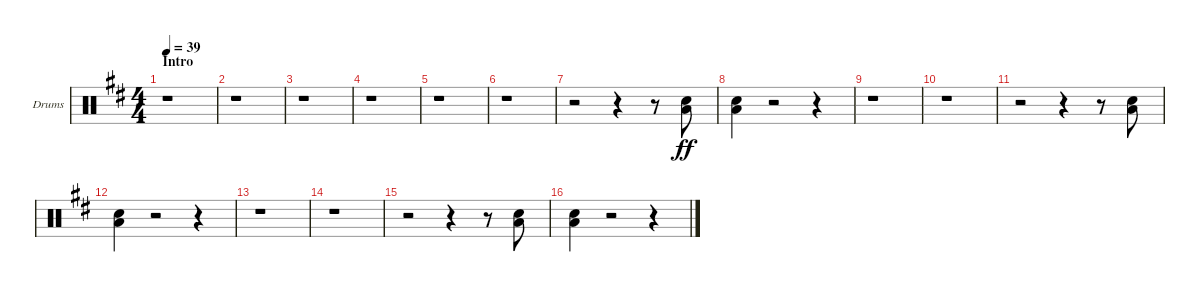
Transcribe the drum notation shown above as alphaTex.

\bracketExtendMode groupsimilarinstruments
\firstSystemTrackNameOrientation horizontal
\otherSystemsTrackNameOrientation horizontal
\track ("Drumkit" "Drums") {instrument percussion}
\staff {score}
\articulation defaults
\ts (4 4)
\section ("" "Intro")
\tempo 39
\clef neutral
\ks d
r.1{dy ff} |
r.1 |
r.1 |
r.1 |
r.1 |
r.1 |
r.2 r.4 r.8 ("Low Tom (hit)" "Snare (hit) 2").8 |
("Low Tom (hit)" "Snare (hit) 2").4 r.2 r.4 |
r.1 |
r.1 |
r.2 r.4 r.8 ("Low Tom (hit)" "Snare (hit) 2").8 |
("Low Tom (hit)" "Snare (hit) 2").4 r.2 r.4 |
r.1 |
r.1 |
r.2 r.4 r.8 ("Low Tom (hit)" "Snare (hit) 2").8 |
("Low Tom (hit)" "Snare (hit) 2").4 r.2 r.4
